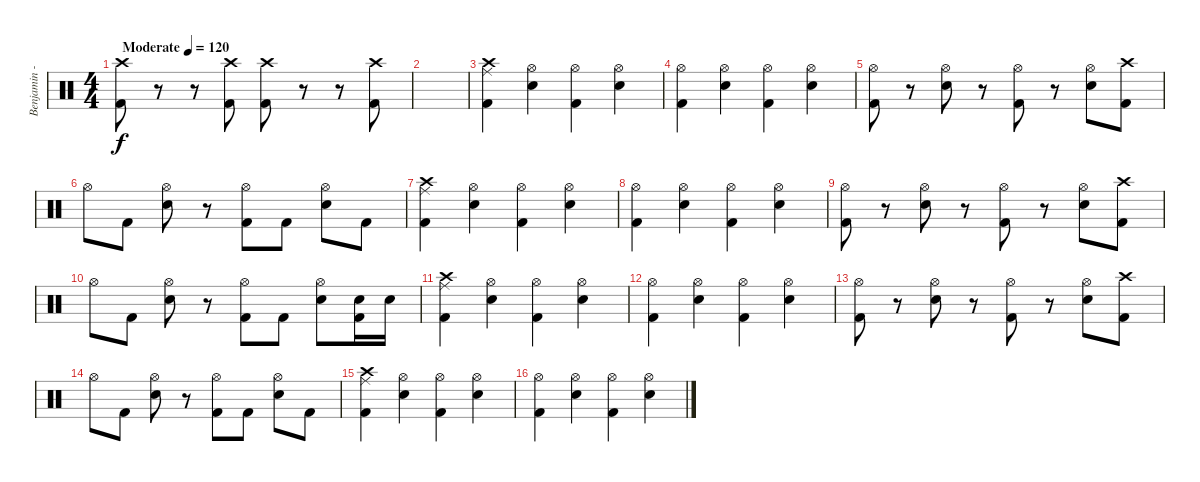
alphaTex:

\track ("Benjamin - Drums" "Benjamin -") {instrument percussion}
\staff {score}
\articulation defaults
\ts (4 4)
\tempo (120 "Moderate")
\clef neutral
\ks c
("Crash high (hit)" "Kick (hit) 2").8{dy f} r.8 r.8 ("Crash high (hit)" "Kick (hit) 2").8 ("Crash high (hit)" "Kick (hit) 2").8 r.8 r.8 ("Crash high (hit)" "Kick (hit) 2").8 |
|
("Crash high (hit)" "Ride (middle)" "Kick (hit) 2").4 ("Hi-Hat (open)" "Snare (hit) 2").4 ("Hi-Hat (open)" "Kick (hit) 2").4 ("Hi-Hat (open)" "Snare (hit) 2").4 |
("Hi-Hat (open)" "Kick (hit) 2").4 ("Hi-Hat (open)" "Snare (hit) 2").4 ("Hi-Hat (open)" "Kick (hit) 2").4 ("Hi-Hat (open)" "Snare (hit) 2").4 |
("Hi-Hat (open)" "Kick (hit) 2").8 r.8 ("Hi-Hat (open)" "Snare (hit) 2").8 r.8 ("Hi-Hat (open)" "Kick (hit) 2").8 r.8 ("Hi-Hat (open)" "Snare (hit) 2").8 ("Crash high (hit)" "Kick (hit) 2").8 |
"Hi-Hat (open)".8 "Kick (hit) 2".8 ("Hi-Hat (open)" "Snare (hit) 2").8 r.8 ("Hi-Hat (open)" "Kick (hit) 2").8 "Kick (hit) 2".8 ("Hi-Hat (open)" "Snare (hit) 2").8 "Kick (hit) 2".8 |
("Crash high (hit)" "Ride (middle)" "Kick (hit) 2").4 ("Hi-Hat (open)" "Snare (hit) 2").4 ("Hi-Hat (open)" "Kick (hit) 2").4 ("Hi-Hat (open)" "Snare (hit) 2").4 |
("Hi-Hat (open)" "Kick (hit) 2").4 ("Hi-Hat (open)" "Snare (hit) 2").4 ("Hi-Hat (open)" "Kick (hit) 2").4 ("Hi-Hat (open)" "Snare (hit) 2").4 |
("Hi-Hat (open)" "Kick (hit) 2").8 r.8 ("Hi-Hat (open)" "Snare (hit) 2").8 r.8 ("Hi-Hat (open)" "Kick (hit) 2").8 r.8 ("Hi-Hat (open)" "Snare (hit) 2").8 ("Crash high (hit)" "Kick (hit) 2").8 |
"Hi-Hat (open)".8 "Kick (hit) 2".8 ("Hi-Hat (open)" "Snare (hit) 2").8 r.8 ("Hi-Hat (open)" "Kick (hit) 2").8 "Kick (hit) 2".8 ("Hi-Hat (open)" "Snare (hit) 2").8 ("Snare (hit) 2" "Kick (hit) 2").16 "Snare (hit) 2".16 |
("Crash high (hit)" "Ride (middle)" "Kick (hit) 2").4 ("Hi-Hat (open)" "Snare (hit) 2").4 ("Hi-Hat (open)" "Kick (hit) 2").4 ("Hi-Hat (open)" "Snare (hit) 2").4 |
("Hi-Hat (open)" "Kick (hit) 2").4 ("Hi-Hat (open)" "Snare (hit) 2").4 ("Hi-Hat (open)" "Kick (hit) 2").4 ("Hi-Hat (open)" "Snare (hit) 2").4 |
("Hi-Hat (open)" "Kick (hit) 2").8 r.8 ("Hi-Hat (open)" "Snare (hit) 2").8 r.8 ("Hi-Hat (open)" "Kick (hit) 2").8 r.8 ("Hi-Hat (open)" "Snare (hit) 2").8 ("Crash high (hit)" "Kick (hit) 2").8 |
"Hi-Hat (open)".8 "Kick (hit) 2".8 ("Hi-Hat (open)" "Snare (hit) 2").8 r.8 ("Hi-Hat (open)" "Kick (hit) 2").8 "Kick (hit) 2".8 ("Hi-Hat (open)" "Snare (hit) 2").8 "Kick (hit) 2".8 |
("Crash high (hit)" "Ride (middle)" "Kick (hit) 2").4 ("Hi-Hat (open)" "Snare (hit) 2").4 ("Hi-Hat (open)" "Kick (hit) 2").4 ("Hi-Hat (open)" "Snare (hit) 2").4 |
("Hi-Hat (open)" "Kick (hit) 2").4 ("Hi-Hat (open)" "Snare (hit) 2").4 ("Hi-Hat (open)" "Kick (hit) 2").4 ("Hi-Hat (open)" "Snare (hit) 2").4
